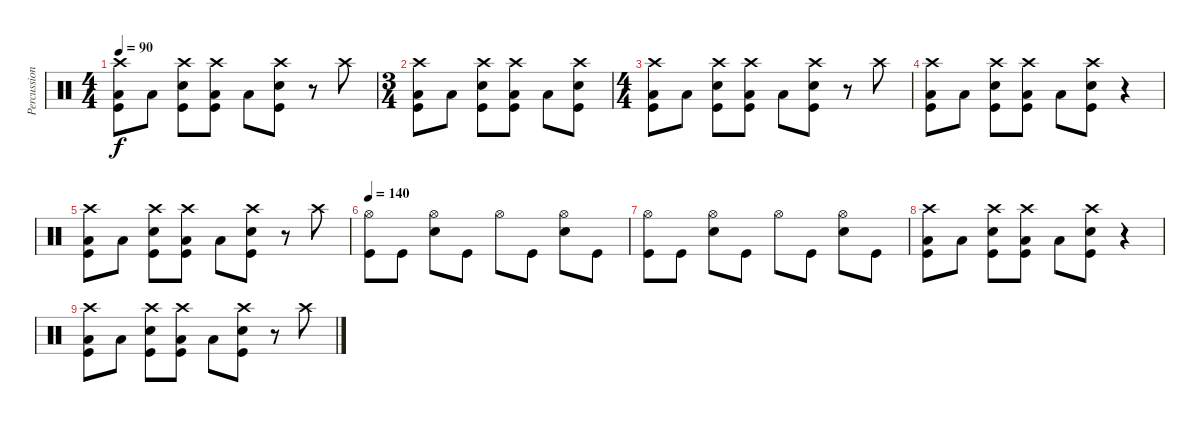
\track ("Percussion" "Percussion") {instrument percussion}
\staff {score}
\articulation defaults
\ts (4 4)
\tempo 90
\clef neutral
\ks c
("Crash high (hit)" "Low Floor Tom (hit)" "Kick (hit)").8{dy f} "Low Floor Tom (hit)".8 ("Crash high (hit)" "Snare (hit) 2" "Kick (hit)").8 ("Crash high (hit)" "Low Floor Tom (hit)" "Kick (hit)").8 "Low Floor Tom (hit)".8 ("Crash high (hit)" "Snare (hit) 2" "Kick (hit)").8 r.8 "Crash high (hit)".8 |
\ts (3 4)
("Crash high (hit)" "Low Floor Tom (hit)" "Kick (hit)").8 "Low Floor Tom (hit)".8 ("Crash high (hit)" "Snare (hit) 2" "Kick (hit)").8 ("Crash high (hit)" "Low Floor Tom (hit)" "Kick (hit)").8 "Low Floor Tom (hit)".8 ("Crash high (hit)" "Snare (hit) 2" "Kick (hit)").8 |
\ts (4 4)
("Crash high (hit)" "Low Floor Tom (hit)" "Kick (hit)").8 "Low Floor Tom (hit)".8 ("Crash high (hit)" "Snare (hit) 2" "Kick (hit)").8 ("Crash high (hit)" "Low Floor Tom (hit)" "Kick (hit)").8 "Low Floor Tom (hit)".8 ("Crash high (hit)" "Snare (hit) 2" "Kick (hit)").8 r.8 "Crash high (hit)".8 |
("Crash high (hit)" "Low Floor Tom (hit)" "Kick (hit)").8 "Low Floor Tom (hit)".8 ("Crash high (hit)" "Snare (hit) 2" "Kick (hit)").8 ("Crash high (hit)" "Low Floor Tom (hit)" "Kick (hit)").8 "Low Floor Tom (hit)".8 ("Crash high (hit)" "Snare (hit) 2" "Kick (hit)").8 r.4 |
("Crash high (hit)" "Low Floor Tom (hit)" "Kick (hit)").8 "Low Floor Tom (hit)".8 ("Crash high (hit)" "Snare (hit) 2" "Kick (hit)").8 ("Crash high (hit)" "Low Floor Tom (hit)" "Kick (hit)").8 "Low Floor Tom (hit)".8 ("Crash high (hit)" "Snare (hit) 2" "Kick (hit)").8 r.8 "Crash high (hit)".8 |
\tempo 140
("Hi-Hat (open)" "Kick (hit)").8 "Kick (hit)".8 ("Hi-Hat (open)" "Snare (hit) 2").8 "Kick (hit)".8 "Hi-Hat (open)".8 "Kick (hit)".8 ("Hi-Hat (open)" "Snare (hit) 2").8 "Kick (hit)".8 |
("Hi-Hat (open)" "Kick (hit)").8 "Kick (hit)".8 ("Hi-Hat (open)" "Snare (hit) 2").8 "Kick (hit)".8 "Hi-Hat (open)".8 "Kick (hit)".8 ("Hi-Hat (open)" "Snare (hit) 2").8 "Kick (hit)".8 |
("Crash high (hit)" "Low Floor Tom (hit)" "Kick (hit)").8 "Low Floor Tom (hit)".8 ("Crash high (hit)" "Snare (hit) 2" "Kick (hit)").8 ("Crash high (hit)" "Low Floor Tom (hit)" "Kick (hit)").8 "Low Floor Tom (hit)".8 ("Crash high (hit)" "Snare (hit) 2" "Kick (hit)").8 r.4 |
("Crash high (hit)" "Low Floor Tom (hit)" "Kick (hit)").8 "Low Floor Tom (hit)".8 ("Crash high (hit)" "Snare (hit) 2" "Kick (hit)").8 ("Crash high (hit)" "Low Floor Tom (hit)" "Kick (hit)").8 "Low Floor Tom (hit)".8 ("Crash high (hit)" "Snare (hit) 2" "Kick (hit)").8 r.8 "Crash high (hit)".8
